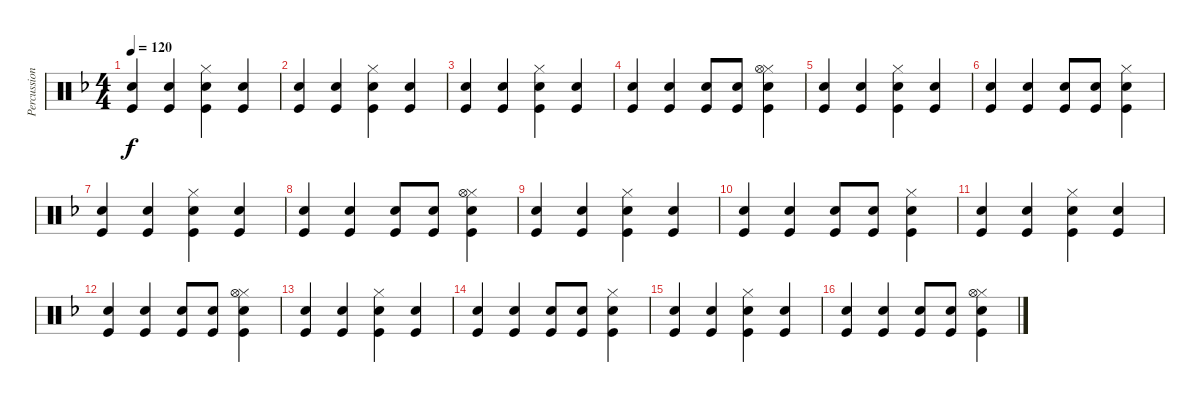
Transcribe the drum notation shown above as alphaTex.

\track ("Percussion" "Percussion") {instrument percussion}
\staff {score}
\articulation defaults
\ts (4 4)
\tempo 120
\clef neutral
\ks f
("Snare (hit) 2" "Kick (hit)").4{dy f} ("Snare (hit) 2" "Kick (hit)").4 ("Snare (hit) 2" "Hi-Hat (closed)" "Kick (hit)").4 ("Snare (hit) 2" "Kick (hit)").4 |
("Snare (hit) 2" "Kick (hit)").4 ("Snare (hit) 2" "Kick (hit)").4 ("Snare (hit) 2" "Hi-Hat (closed)" "Kick (hit)").4 ("Snare (hit) 2" "Kick (hit)").4 |
("Snare (hit) 2" "Kick (hit)").4 ("Snare (hit) 2" "Kick (hit)").4 ("Snare (hit) 2" "Hi-Hat (closed)" "Kick (hit)").4 ("Snare (hit) 2" "Kick (hit)").4 |
("Snare (hit) 2" "Kick (hit)").4 ("Snare (hit) 2" "Kick (hit)").4 ("Snare (hit) 2" "Kick (hit)").8 ("Snare (hit) 2" "Kick (hit)").8 ("Snare (hit) 2" "Hi-Hat (closed)" "Hi-Hat (open)" "Kick (hit)").4 |
("Snare (hit) 2" "Kick (hit)").4 ("Snare (hit) 2" "Kick (hit)").4 ("Snare (hit) 2" "Hi-Hat (closed)" "Kick (hit)").4 ("Snare (hit) 2" "Kick (hit)").4 |
("Snare (hit) 2" "Kick (hit)").4 ("Snare (hit) 2" "Kick (hit)").4 ("Snare (hit) 2" "Kick (hit)").8 ("Snare (hit) 2" "Kick (hit)").8 ("Snare (hit) 2" "Hi-Hat (closed)" "Kick (hit)").4 |
("Snare (hit) 2" "Kick (hit)").4 ("Snare (hit) 2" "Kick (hit)").4 ("Snare (hit) 2" "Hi-Hat (closed)" "Kick (hit)").4 ("Snare (hit) 2" "Kick (hit)").4 |
("Snare (hit) 2" "Kick (hit)").4 ("Snare (hit) 2" "Kick (hit)").4 ("Snare (hit) 2" "Kick (hit)").8 ("Snare (hit) 2" "Kick (hit)").8 ("Snare (hit) 2" "Hi-Hat (closed)" "Hi-Hat (open)" "Kick (hit)").4 |
("Snare (hit) 2" "Kick (hit)").4 ("Snare (hit) 2" "Kick (hit)").4 ("Snare (hit) 2" "Hi-Hat (closed)" "Kick (hit)").4 ("Snare (hit) 2" "Kick (hit)").4 |
("Snare (hit) 2" "Kick (hit)").4 ("Snare (hit) 2" "Kick (hit)").4 ("Snare (hit) 2" "Kick (hit)").8 ("Snare (hit) 2" "Kick (hit)").8 ("Snare (hit) 2" "Hi-Hat (closed)" "Kick (hit)").4 |
("Snare (hit) 2" "Kick (hit)").4 ("Snare (hit) 2" "Kick (hit)").4 ("Snare (hit) 2" "Hi-Hat (closed)" "Kick (hit)").4 ("Snare (hit) 2" "Kick (hit)").4 |
("Snare (hit) 2" "Kick (hit)").4 ("Snare (hit) 2" "Kick (hit)").4 ("Snare (hit) 2" "Kick (hit)").8 ("Snare (hit) 2" "Kick (hit)").8 ("Snare (hit) 2" "Hi-Hat (closed)" "Hi-Hat (open)" "Kick (hit)").4 |
("Snare (hit) 2" "Kick (hit)").4 ("Snare (hit) 2" "Kick (hit)").4 ("Snare (hit) 2" "Hi-Hat (closed)" "Kick (hit)").4 ("Snare (hit) 2" "Kick (hit)").4 |
("Snare (hit) 2" "Kick (hit)").4 ("Snare (hit) 2" "Kick (hit)").4 ("Snare (hit) 2" "Kick (hit)").8 ("Snare (hit) 2" "Kick (hit)").8 ("Snare (hit) 2" "Hi-Hat (closed)" "Kick (hit)").4 |
("Snare (hit) 2" "Kick (hit)").4 ("Snare (hit) 2" "Kick (hit)").4 ("Snare (hit) 2" "Hi-Hat (closed)" "Kick (hit)").4 ("Snare (hit) 2" "Kick (hit)").4 |
("Snare (hit) 2" "Kick (hit)").4 ("Snare (hit) 2" "Kick (hit)").4 ("Snare (hit) 2" "Kick (hit)").8 ("Snare (hit) 2" "Kick (hit)").8 ("Snare (hit) 2" "Hi-Hat (closed)" "Hi-Hat (open)" "Kick (hit)").4
